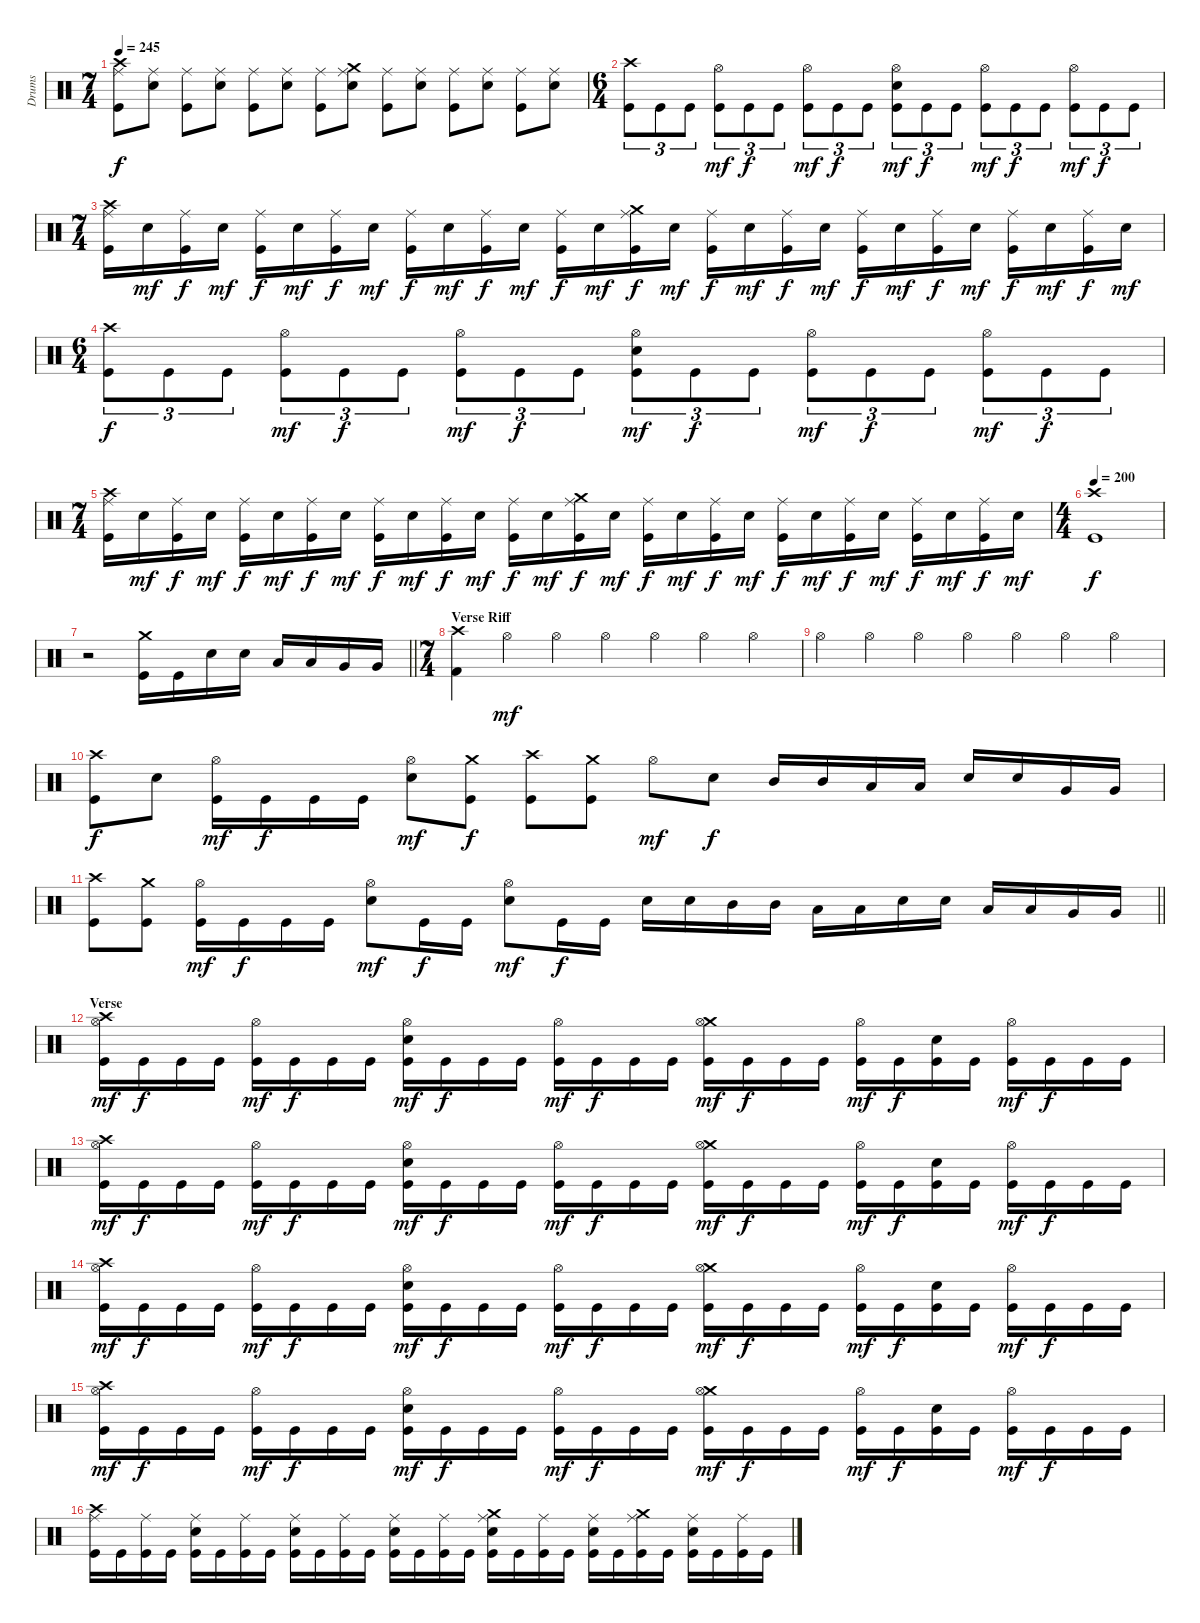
\track ("Drums" "Drums") {instrument percussion}
\staff {score}
\articulation defaults
\ts (7 4)
\tempo 245
\clef neutral
\ks c
("Crash high (hit)" "Ride (middle)" "Kick (hit)").8{dy f} ("Ride (middle)" "Electric Snare (hit)").8 ("Ride (middle)" "Kick (hit)").8 ("Ride (middle)" "Electric Snare (hit)").8 ("Ride (middle)" "Kick (hit)").8 ("Ride (middle)" "Electric Snare (hit)").8 ("Ride (middle)" "Kick (hit)").8 ("Crash medium (hit)" "Ride (middle)" "Electric Snare (hit)").8 ("Ride (middle)" "Kick (hit)").8 ("Ride (middle)" "Electric Snare (hit)").8 ("Ride (middle)" "Kick (hit)").8 ("Ride (middle)" "Electric Snare (hit)").8 ("Ride (middle)" "Kick (hit)").8 ("Ride (middle)" "Electric Snare (hit)").8 |
\ts (6 4)
("Crash high (hit)" "Kick (hit)").8{tu (3 2)} "Kick (hit)".8{tu (3 2)} "Kick (hit)".8{tu (3 2)} ("Hi-Hat (open)" "Kick (hit)").8{tu (3 2) dy mf} "Kick (hit)".8{tu (3 2) dy f} "Kick (hit)".8{tu (3 2)} ("Hi-Hat (open)" "Kick (hit)").8{tu (3 2) dy mf} "Kick (hit)".8{tu (3 2) dy f} "Kick (hit)".8{tu (3 2)} ("Hi-Hat (open)" "Electric Snare (hit)" "Kick (hit)").8{tu (3 2) dy mf} "Kick (hit)".8{tu (3 2) dy f} "Kick (hit)".8{tu (3 2)} ("Hi-Hat (open)" "Kick (hit)").8{tu (3 2) dy mf} "Kick (hit)".8{tu (3 2) dy f} "Kick (hit)".8{tu (3 2)} ("Hi-Hat (open)" "Kick (hit)").8{tu (3 2) dy mf} "Kick (hit)".8{tu (3 2) dy f} "Kick (hit)".8{tu (3 2)} |
\ts (7 4)
("Crash high (hit)" "Ride (middle)" "Kick (hit)").16 "Electric Snare (hit)".16{dy mf} ("Ride (middle)" "Kick (hit)").16{dy f} "Electric Snare (hit)".16{dy mf} ("Ride (middle)" "Kick (hit)").16{dy f} "Electric Snare (hit)".16{dy mf} ("Ride (middle)" "Kick (hit)").16{dy f} "Electric Snare (hit)".16{dy mf} ("Ride (middle)" "Kick (hit)").16{dy f} "Electric Snare (hit)".16{dy mf} ("Ride (middle)" "Kick (hit)").16{dy f} "Electric Snare (hit)".16{dy mf} ("Ride (middle)" "Kick (hit)").16{dy f} "Electric Snare (hit)".16{dy mf} ("Crash medium (hit)" "Ride (middle)" "Kick (hit)").16{dy f} "Electric Snare (hit)".16{dy mf} ("Ride (middle)" "Kick (hit)").16{dy f} "Electric Snare (hit)".16{dy mf} ("Ride (middle)" "Kick (hit)").16{dy f} "Electric Snare (hit)".16{dy mf} ("Ride (middle)" "Kick (hit)").16{dy f} "Electric Snare (hit)".16{dy mf} ("Ride (middle)" "Kick (hit)").16{dy f} "Electric Snare (hit)".16{dy mf} ("Ride (middle)" "Kick (hit)").16{dy f} "Electric Snare (hit)".16{dy mf} ("Ride (middle)" "Kick (hit)").16{dy f} "Electric Snare (hit)".16{dy mf} |
\ts (6 4)
("Crash high (hit)" "Kick (hit)").8{tu (3 2) dy f} "Kick (hit)".8{tu (3 2)} "Kick (hit)".8{tu (3 2)} ("Hi-Hat (open)" "Kick (hit)").8{tu (3 2) dy mf} "Kick (hit)".8{tu (3 2) dy f} "Kick (hit)".8{tu (3 2)} ("Hi-Hat (open)" "Kick (hit)").8{tu (3 2) dy mf} "Kick (hit)".8{tu (3 2) dy f} "Kick (hit)".8{tu (3 2)} ("Hi-Hat (open)" "Electric Snare (hit)" "Kick (hit)").8{tu (3 2) dy mf} "Kick (hit)".8{tu (3 2) dy f} "Kick (hit)".8{tu (3 2)} ("Hi-Hat (open)" "Kick (hit)").8{tu (3 2) dy mf} "Kick (hit)".8{tu (3 2) dy f} "Kick (hit)".8{tu (3 2)} ("Hi-Hat (open)" "Kick (hit)").8{tu (3 2) dy mf} "Kick (hit)".8{tu (3 2) dy f} "Kick (hit)".8{tu (3 2)} |
\ts (7 4)
("Crash high (hit)" "Ride (middle)" "Kick (hit)").16 "Electric Snare (hit)".16{dy mf} ("Ride (middle)" "Kick (hit)").16{dy f} "Electric Snare (hit)".16{dy mf} ("Ride (middle)" "Kick (hit)").16{dy f} "Electric Snare (hit)".16{dy mf} ("Ride (middle)" "Kick (hit)").16{dy f} "Electric Snare (hit)".16{dy mf} ("Ride (middle)" "Kick (hit)").16{dy f} "Electric Snare (hit)".16{dy mf} ("Ride (middle)" "Kick (hit)").16{dy f} "Electric Snare (hit)".16{dy mf} ("Ride (middle)" "Kick (hit)").16{dy f} "Electric Snare (hit)".16{dy mf} ("Crash medium (hit)" "Ride (middle)" "Kick (hit)").16{dy f} "Electric Snare (hit)".16{dy mf} ("Ride (middle)" "Kick (hit)").16{dy f} "Electric Snare (hit)".16{dy mf} ("Ride (middle)" "Kick (hit)").16{dy f} "Electric Snare (hit)".16{dy mf} ("Ride (middle)" "Kick (hit)").16{dy f} "Electric Snare (hit)".16{dy mf} ("Ride (middle)" "Kick (hit)").16{dy f} "Electric Snare (hit)".16{dy mf} ("Ride (middle)" "Kick (hit)").16{dy f} "Electric Snare (hit)".16{dy mf} ("Ride (middle)" "Kick (hit)").16{dy f} "Electric Snare (hit)".16{dy mf} |
\ts (4 4)
\tempo 200
("Crash high (hit)" "Kick (hit)").1{dy f} |
\barLineRight lightlight
r.2 ("Crash medium (hit)" "Kick (hit)").16 "Kick (hit)".16 "Electric Snare (hit)".16 "Electric Snare (hit)".16 "Low Tom (hit)".16 "Low Tom (hit)".16 "Very Low Tom (hit)".16 "Very Low Tom (hit)".16 |
\ts (7 4)
\section ("" "Verse Riff")
("Crash high (hit)" "Kick (hit) 2").4 "Hi-Hat (open)".4{dy mf} "Hi-Hat (open)".4 "Hi-Hat (open)".4 "Hi-Hat (open)".4 "Hi-Hat (open)".4 "Hi-Hat (open)".4 |
"Hi-Hat (open)".4 "Hi-Hat (open)".4 "Hi-Hat (open)".4 "Hi-Hat (open)".4 "Hi-Hat (open)".4 "Hi-Hat (open)".4 "Hi-Hat (open)".4 |
("Crash high (hit)" "Kick (hit)").8{dy f} "Electric Snare (hit)".8 ("Hi-Hat (open)" "Kick (hit)").16{dy mf} "Kick (hit)".16{dy f} "Kick (hit)".16 "Kick (hit)".16 ("Hi-Hat (open)" "Electric Snare (hit)").8{dy mf} ("Crash medium (hit)" "Kick (hit)").8{dy f} ("Crash high (hit)" "Kick (hit)").8 ("Crash medium (hit)" "Kick (hit)").8 "Hi-Hat (open)".8{dy mf} "Electric Snare (hit)".8{dy f} "Mid Tom (hit)".16 "Mid Tom (hit)".16 "Low Tom (hit)".16 "Low Tom (hit)".16 "Electric Snare (hit)".16 "Electric Snare (hit)".16 "Very Low Tom (hit)".16 "Very Low Tom (hit)".16 |
\barLineRight lightlight
("Crash high (hit)" "Kick (hit)").8 ("Crash medium (hit)" "Kick (hit)").8 ("Hi-Hat (open)" "Kick (hit)").16{dy mf} "Kick (hit)".16{dy f} "Kick (hit)".16 "Kick (hit)".16 ("Hi-Hat (open)" "Electric Snare (hit)").8{dy mf} "Kick (hit)".16{dy f} "Kick (hit)".16 ("Hi-Hat (open)" "Electric Snare (hit)").8{dy mf} "Kick (hit)".16{dy f} "Kick (hit)".16 "Electric Snare (hit)".16 "Electric Snare (hit)".16 "Mid Tom (hit)".16 "Mid Tom (hit)".16 "Low Tom (hit)".16 "Low Tom (hit)".16 "Electric Snare (hit)".16 "Electric Snare (hit)".16 "Low Tom (hit)".16 "Low Tom (hit)".16 "Very Low Tom (hit)".16 "Very Low Tom (hit)".16 |
\section ("" "Verse")
("Crash high (hit)" "Hi-Hat (open)" "Kick (hit)").16{dy mf} "Kick (hit)".16{dy f} "Kick (hit)".16 "Kick (hit)".16 ("Hi-Hat (open)" "Kick (hit)").16{dy mf} "Kick (hit)".16{dy f} "Kick (hit)".16 "Kick (hit)".16 ("Hi-Hat (open)" "Electric Snare (hit)" "Kick (hit)").16{dy mf} "Kick (hit)".16{dy f} "Kick (hit)".16 "Kick (hit)".16 ("Hi-Hat (open)" "Kick (hit)").16{dy mf} "Kick (hit)".16{dy f} "Kick (hit)".16 "Kick (hit)".16 ("Crash medium (hit)" "Hi-Hat (open)" "Kick (hit)").16{dy mf} "Kick (hit)".16{dy f} "Kick (hit)".16 "Kick (hit)".16 ("Hi-Hat (open)" "Kick (hit)").16{dy mf} "Kick (hit)".16{dy f} ("Electric Snare (hit)" "Kick (hit)").16 "Kick (hit)".16 ("Hi-Hat (open)" "Kick (hit)").16{dy mf} "Kick (hit)".16{dy f} "Kick (hit)".16 "Kick (hit)".16 |
("Crash high (hit)" "Hi-Hat (open)" "Kick (hit)").16{dy mf} "Kick (hit)".16{dy f} "Kick (hit)".16 "Kick (hit)".16 ("Hi-Hat (open)" "Kick (hit)").16{dy mf} "Kick (hit)".16{dy f} "Kick (hit)".16 "Kick (hit)".16 ("Hi-Hat (open)" "Electric Snare (hit)" "Kick (hit)").16{dy mf} "Kick (hit)".16{dy f} "Kick (hit)".16 "Kick (hit)".16 ("Hi-Hat (open)" "Kick (hit)").16{dy mf} "Kick (hit)".16{dy f} "Kick (hit)".16 "Kick (hit)".16 ("Crash medium (hit)" "Hi-Hat (open)" "Kick (hit)").16{dy mf} "Kick (hit)".16{dy f} "Kick (hit)".16 "Kick (hit)".16 ("Hi-Hat (open)" "Kick (hit)").16{dy mf} "Kick (hit)".16{dy f} ("Electric Snare (hit)" "Kick (hit)").16 "Kick (hit)".16 ("Hi-Hat (open)" "Kick (hit)").16{dy mf} "Kick (hit)".16{dy f} "Kick (hit)".16 "Kick (hit)".16 |
("Crash high (hit)" "Hi-Hat (open)" "Kick (hit)").16{dy mf} "Kick (hit)".16{dy f} "Kick (hit)".16 "Kick (hit)".16 ("Hi-Hat (open)" "Kick (hit)").16{dy mf} "Kick (hit)".16{dy f} "Kick (hit)".16 "Kick (hit)".16 ("Hi-Hat (open)" "Electric Snare (hit)" "Kick (hit)").16{dy mf} "Kick (hit)".16{dy f} "Kick (hit)".16 "Kick (hit)".16 ("Hi-Hat (open)" "Kick (hit)").16{dy mf} "Kick (hit)".16{dy f} "Kick (hit)".16 "Kick (hit)".16 ("Crash medium (hit)" "Hi-Hat (open)" "Kick (hit)").16{dy mf} "Kick (hit)".16{dy f} "Kick (hit)".16 "Kick (hit)".16 ("Hi-Hat (open)" "Kick (hit)").16{dy mf} "Kick (hit)".16{dy f} ("Electric Snare (hit)" "Kick (hit)").16 "Kick (hit)".16 ("Hi-Hat (open)" "Kick (hit)").16{dy mf} "Kick (hit)".16{dy f} "Kick (hit)".16 "Kick (hit)".16 |
("Crash high (hit)" "Hi-Hat (open)" "Kick (hit)").16{dy mf} "Kick (hit)".16{dy f} "Kick (hit)".16 "Kick (hit)".16 ("Hi-Hat (open)" "Kick (hit)").16{dy mf} "Kick (hit)".16{dy f} "Kick (hit)".16 "Kick (hit)".16 ("Hi-Hat (open)" "Electric Snare (hit)" "Kick (hit)").16{dy mf} "Kick (hit)".16{dy f} "Kick (hit)".16 "Kick (hit)".16 ("Hi-Hat (open)" "Kick (hit)").16{dy mf} "Kick (hit)".16{dy f} "Kick (hit)".16 "Kick (hit)".16 ("Crash medium (hit)" "Hi-Hat (open)" "Kick (hit)").16{dy mf} "Kick (hit)".16{dy f} "Kick (hit)".16 "Kick (hit)".16 ("Hi-Hat (open)" "Kick (hit)").16{dy mf} "Kick (hit)".16{dy f} ("Electric Snare (hit)" "Kick (hit)").16 "Kick (hit)".16 ("Hi-Hat (open)" "Kick (hit)").16{dy mf} "Kick (hit)".16{dy f} "Kick (hit)".16 "Kick (hit)".16 |
("Crash high (hit)" "Ride (middle)" "Kick (hit)").16 "Kick (hit)".16 ("Ride (middle)" "Kick (hit)").16 "Kick (hit)".16 ("Ride (middle)" "Electric Snare (hit)" "Kick (hit)").16 "Kick (hit)".16 ("Ride (middle)" "Kick (hit)").16 "Kick (hit)".16 ("Ride (middle)" "Electric Snare (hit)" "Kick (hit)").16 "Kick (hit)".16 ("Ride (middle)" "Kick (hit)").16 "Kick (hit)".16 ("Ride (middle)" "Electric Snare (hit)" "Kick (hit)").16 "Kick (hit)".16 ("Ride (middle)" "Kick (hit)").16 "Kick (hit)".16 ("Crash medium (hit)" "Ride (middle)" "Electric Snare (hit)" "Kick (hit)").16 "Kick (hit)".16 ("Ride (middle)" "Kick (hit)").16 "Kick (hit)".16 ("Ride (middle)" "Electric Snare (hit)" "Kick (hit)").16 "Kick (hit)".16 ("Crash medium (hit)" "Ride (middle)" "Kick (hit)").16 "Kick (hit)".16 ("Ride (middle)" "Electric Snare (hit)" "Kick (hit)").16 "Kick (hit)".16 ("Ride (middle)" "Kick (hit)").16 "Kick (hit)".16
